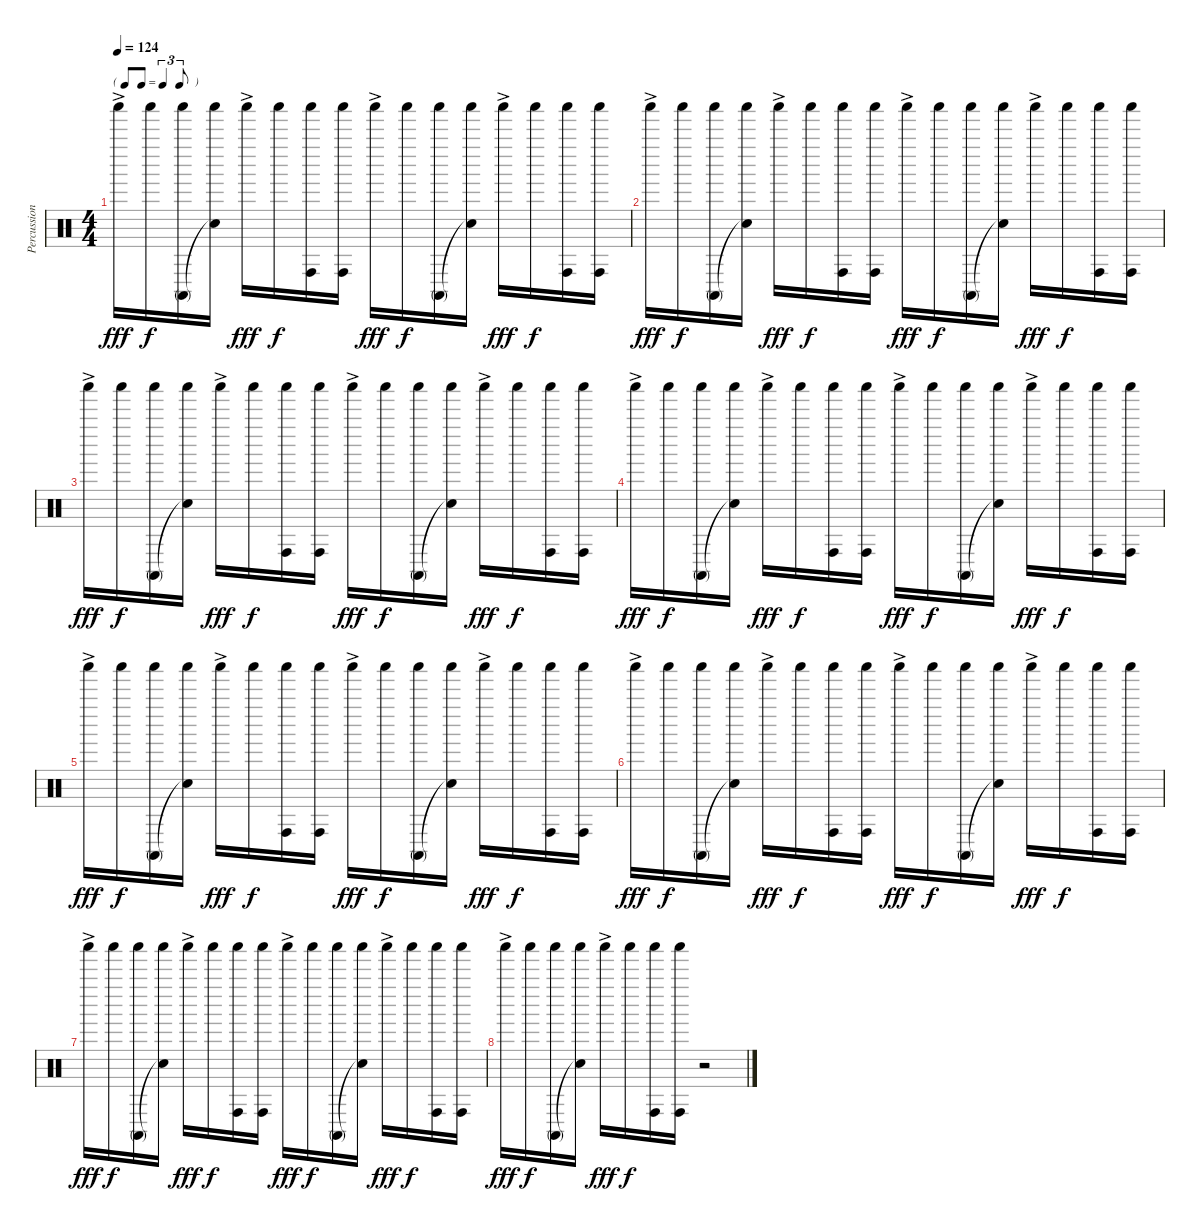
\track ("Percussion" "Percussion") {instrument percussion}
\staff {score}
\articulation defaults
\ts (4 4)
\tf triplet8th
\tempo 124
\clef neutral
\ks c "Shaker (hit)"{ac}.16{dy fff} "Shaker (hit)".16{dy f}
("Shaker (hit)" "Conga high (mute)").16 ("Shaker (hit)" "Snare (hit)"{t}).16 "Shaker (hit)"{ac}.16{dy fff} "Shaker (hit)".16{dy f} ("Shaker (hit)" "Conga high (hit)").16 ("Shaker (hit)" "Conga high (hit)").16 "Shaker (hit)"{ac}.16{dy fff} "Shaker (hit)".16{dy f} ("Shaker (hit)" "Conga high (mute)").16 ("Shaker (hit)" "Snare (hit)"{t}).16 "Shaker (hit)"{ac}.16{dy fff} "Shaker (hit)".16{dy f} ("Shaker (hit)" "Conga high (hit)").16 ("Shaker (hit)" "Conga high (hit)").16 |
"Shaker (hit)"{ac}.16{dy fff} "Shaker (hit)".16{dy f} ("Shaker (hit)" "Conga high (mute)").16 ("Shaker (hit)" "Snare (hit)"{t}).16 "Shaker (hit)"{ac}.16{dy fff} "Shaker (hit)".16{dy f} ("Shaker (hit)" "Conga high (hit)").16 ("Shaker (hit)" "Conga high (hit)").16 "Shaker (hit)"{ac}.16{dy fff} "Shaker (hit)".16{dy f} ("Shaker (hit)" "Conga high (mute)").16 ("Shaker (hit)" "Snare (hit)"{t}).16 "Shaker (hit)"{ac}.16{dy fff} "Shaker (hit)".16{dy f} ("Shaker (hit)" "Conga high (hit)").16 ("Shaker (hit)" "Conga high (hit)").16 |
"Shaker (hit)"{ac}.16{dy fff} "Shaker (hit)".16{dy f} ("Shaker (hit)" "Conga high (mute)").16 ("Shaker (hit)" "Snare (hit)"{t}).16 "Shaker (hit)"{ac}.16{dy fff} "Shaker (hit)".16{dy f} ("Shaker (hit)" "Conga high (hit)").16 ("Shaker (hit)" "Conga high (hit)").16 "Shaker (hit)"{ac}.16{dy fff} "Shaker (hit)".16{dy f} ("Shaker (hit)" "Conga high (mute)").16 ("Shaker (hit)" "Snare (hit)"{t}).16 "Shaker (hit)"{ac}.16{dy fff} "Shaker (hit)".16{dy f} ("Shaker (hit)" "Conga high (hit)").16 ("Shaker (hit)" "Conga high (hit)").16 |
"Shaker (hit)"{ac}.16{dy fff} "Shaker (hit)".16{dy f} ("Shaker (hit)" "Conga high (mute)").16 ("Shaker (hit)" "Snare (hit)"{t}).16 "Shaker (hit)"{ac}.16{dy fff} "Shaker (hit)".16{dy f} ("Shaker (hit)" "Conga high (hit)").16 ("Shaker (hit)" "Conga high (hit)").16 "Shaker (hit)"{ac}.16{dy fff} "Shaker (hit)".16{dy f} ("Shaker (hit)" "Conga high (mute)").16 ("Shaker (hit)" "Snare (hit)"{t}).16 "Shaker (hit)"{ac}.16{dy fff} "Shaker (hit)".16{dy f} ("Shaker (hit)" "Conga high (hit)").16 ("Shaker (hit)" "Conga high (hit)").16 |
"Shaker (hit)"{ac}.16{dy fff} "Shaker (hit)".16{dy f} ("Shaker (hit)" "Conga high (mute)").16 ("Shaker (hit)" "Snare (hit)"{t}).16 "Shaker (hit)"{ac}.16{dy fff} "Shaker (hit)".16{dy f} ("Shaker (hit)" "Conga high (hit)").16 ("Shaker (hit)" "Conga high (hit)").16 "Shaker (hit)"{ac}.16{dy fff} "Shaker (hit)".16{dy f} ("Shaker (hit)" "Conga high (mute)").16 ("Shaker (hit)" "Snare (hit)"{t}).16 "Shaker (hit)"{ac}.16{dy fff} "Shaker (hit)".16{dy f} ("Shaker (hit)" "Conga high (hit)").16 ("Shaker (hit)" "Conga high (hit)").16 |
"Shaker (hit)"{ac}.16{dy fff} "Shaker (hit)".16{dy f} ("Shaker (hit)" "Conga high (mute)").16 ("Shaker (hit)" "Snare (hit)"{t}).16 "Shaker (hit)"{ac}.16{dy fff} "Shaker (hit)".16{dy f} ("Shaker (hit)" "Conga high (hit)").16 ("Shaker (hit)" "Conga high (hit)").16 "Shaker (hit)"{ac}.16{dy fff} "Shaker (hit)".16{dy f} ("Shaker (hit)" "Conga high (mute)").16 ("Shaker (hit)" "Snare (hit)"{t}).16 "Shaker (hit)"{ac}.16{dy fff} "Shaker (hit)".16{dy f} ("Shaker (hit)" "Conga high (hit)").16 ("Shaker (hit)" "Conga high (hit)").16 |
"Shaker (hit)"{ac}.16{dy fff} "Shaker (hit)".16{dy f} ("Shaker (hit)" "Conga high (mute)").16 ("Shaker (hit)" "Snare (hit)"{t}).16 "Shaker (hit)"{ac}.16{dy fff} "Shaker (hit)".16{dy f} ("Shaker (hit)" "Conga high (hit)").16 ("Shaker (hit)" "Conga high (hit)").16 "Shaker (hit)"{ac}.16{dy fff} "Shaker (hit)".16{dy f} ("Shaker (hit)" "Conga high (mute)").16 ("Shaker (hit)" "Snare (hit)"{t}).16 "Shaker (hit)"{ac}.16{dy fff} "Shaker (hit)".16{dy f} ("Shaker (hit)" "Conga high (hit)").16 ("Shaker (hit)" "Conga high (hit)").16 |
"Shaker (hit)"{ac}.16{dy fff} "Shaker (hit)".16{dy f} ("Shaker (hit)" "Conga high (mute)").16 ("Shaker (hit)" "Snare (hit)"{t}).16 "Shaker (hit)"{ac}.16{dy fff} "Shaker (hit)".16{dy f} ("Shaker (hit)" "Conga high (hit)").16 ("Shaker (hit)" "Conga high (hit)").16 r.2
